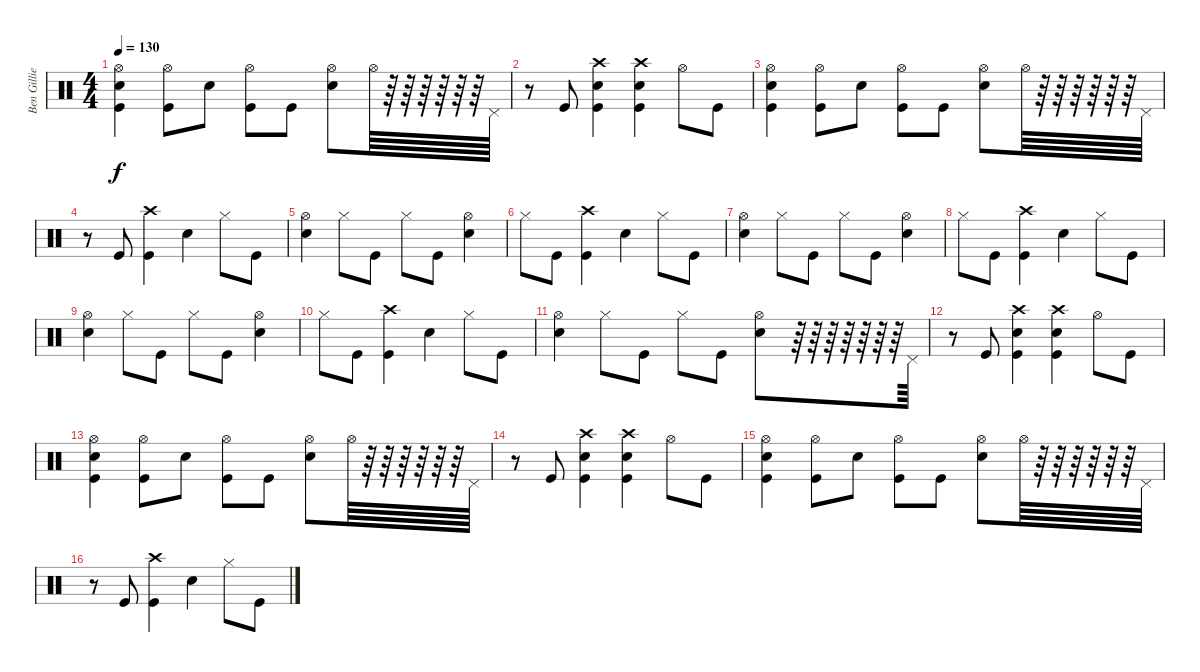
\track ("Ben Gillies" "Ben Gillie") {instrument percussion}
\staff {score}
\articulation defaults
\ts (4 4)
\tempo 130
\clef neutral
\ks c
("Kick (hit)" "Snare (hit) 2" "Hi-Hat (open)").4{dy f} ("Kick (hit)" "Hi-Hat (open)").8 "Snare (hit) 2".8 ("Kick (hit)" "Hi-Hat (open)").8 "Kick (hit)".8 ("Snare (hit) 2" "Hi-Hat (open)").8 "Hi-Hat (open)".64 r.64 r.64 r.64 r.64 r.64 r.64 "Pedal Hi-Hat (hit)".64 |
r.8 "Kick (hit)".8 ("Kick (hit)" "Snare (hit) 2" "Crash high (hit)").4 ("Kick (hit)" "Snare (hit) 2" "Crash high (hit)").4 "Hi-Hat (open)".8 "Kick (hit)".8 |
("Kick (hit)" "Snare (hit) 2" "Hi-Hat (open)").4 ("Kick (hit)" "Hi-Hat (open)").8 "Snare (hit) 2".8 ("Kick (hit)" "Hi-Hat (open)").8 "Kick (hit)".8 ("Snare (hit) 2" "Hi-Hat (open)").8 "Hi-Hat (open)".64 r.64 r.64 r.64 r.64 r.64 r.64 "Pedal Hi-Hat (hit)".64 |
r.8 "Kick (hit)".8 ("Kick (hit)" "Crash high (hit)").4 "Snare (hit) 2".4 "Hi-Hat (closed)".8 "Kick (hit)".8 |
("Snare (hit) 2" "Hi-Hat (open)").4 "Hi-Hat (closed)".8 "Kick (hit)".8 "Hi-Hat (closed)".8 "Kick (hit)".8 ("Snare (hit) 2" "Hi-Hat (open)").4 |
"Hi-Hat (closed)".8 "Kick (hit)".8 ("Kick (hit)" "Crash high (hit)").4 "Snare (hit) 2".4 "Hi-Hat (closed)".8 "Kick (hit)".8 |
("Snare (hit) 2" "Hi-Hat (open)").4 "Hi-Hat (closed)".8 "Kick (hit)".8 "Hi-Hat (closed)".8 "Kick (hit)".8 ("Snare (hit) 2" "Hi-Hat (open)").4 |
"Hi-Hat (closed)".8 "Kick (hit)".8 ("Kick (hit)" "Crash high (hit)").4 "Snare (hit) 2".4 "Hi-Hat (closed)".8 "Kick (hit)".8 |
("Snare (hit) 2" "Hi-Hat (open)").4 "Hi-Hat (closed)".8 "Kick (hit)".8 "Hi-Hat (closed)".8 "Kick (hit)".8 ("Snare (hit) 2" "Hi-Hat (open)").4 |
"Hi-Hat (closed)".8 "Kick (hit)".8 ("Kick (hit)" "Crash high (hit)").4 "Snare (hit) 2".4 "Hi-Hat (closed)".8 "Kick (hit)".8 |
("Snare (hit) 2" "Hi-Hat (open)").4 "Hi-Hat (closed)".8 "Kick (hit)".8 "Hi-Hat (closed)".8 "Kick (hit)".8 ("Snare (hit) 2" "Hi-Hat (open)").8 r.64 r.64 r.64 r.64 r.64 r.64 r.64 "Pedal Hi-Hat (hit)".64 |
r.8 "Kick (hit)".8 ("Kick (hit)" "Snare (hit) 2" "Crash high (hit)").4 ("Kick (hit)" "Snare (hit) 2" "Crash high (hit)").4 "Hi-Hat (open)".8 "Kick (hit)".8 |
("Kick (hit)" "Snare (hit) 2" "Hi-Hat (open)").4 ("Kick (hit)" "Hi-Hat (open)").8 "Snare (hit) 2".8 ("Kick (hit)" "Hi-Hat (open)").8 "Kick (hit)".8 ("Snare (hit) 2" "Hi-Hat (open)").8 "Hi-Hat (open)".64 r.64 r.64 r.64 r.64 r.64 r.64 "Pedal Hi-Hat (hit)".64 |
r.8 "Kick (hit)".8 ("Kick (hit)" "Snare (hit) 2" "Crash high (hit)").4 ("Kick (hit)" "Snare (hit) 2" "Crash high (hit)").4 "Hi-Hat (open)".8 "Kick (hit)".8 |
("Kick (hit)" "Snare (hit) 2" "Hi-Hat (open)").4 ("Kick (hit)" "Hi-Hat (open)").8 "Snare (hit) 2".8 ("Kick (hit)" "Hi-Hat (open)").8 "Kick (hit)".8 ("Snare (hit) 2" "Hi-Hat (open)").8 "Hi-Hat (open)".64 r.64 r.64 r.64 r.64 r.64 r.64 "Pedal Hi-Hat (hit)".64 |
r.8 "Kick (hit)".8 ("Kick (hit)" "Crash high (hit)").4 "Snare (hit) 2".4 "Hi-Hat (closed)".8 "Kick (hit)".8
